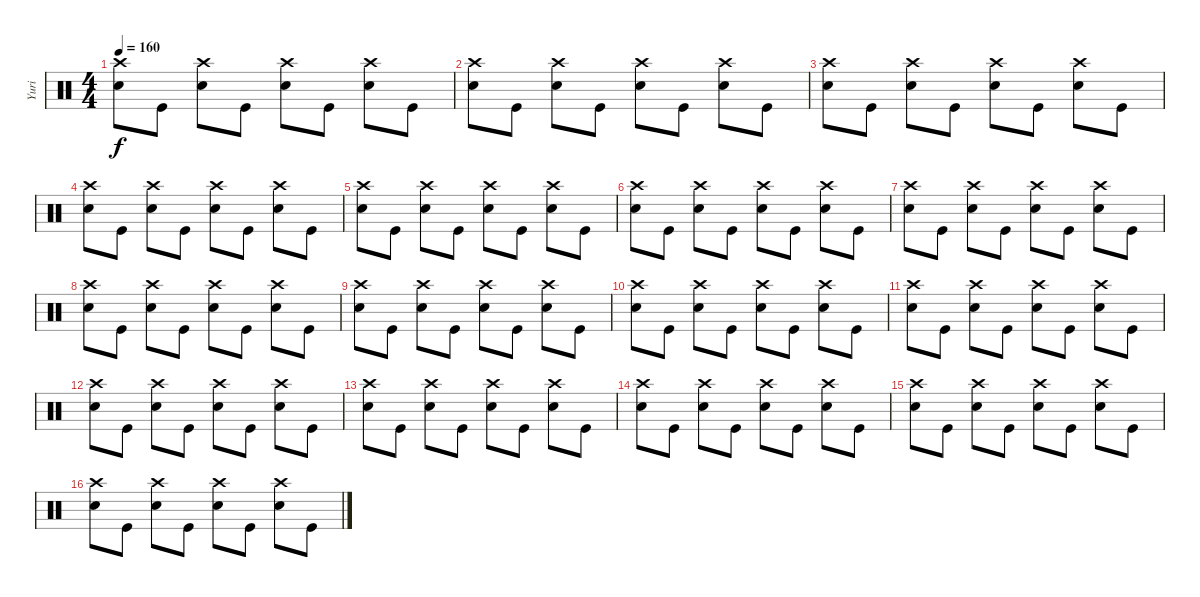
\track ("Yuri" "Yuri") {instrument percussion}
\staff {score}
\articulation defaults
\ts (4 4)
\tempo 160
\clef neutral
\ks c
("Crash high (hit)" "Snare (hit) 2").8{dy f} "Kick (hit)".8 ("Crash high (hit)" "Snare (hit) 2").8 "Kick (hit)".8 ("Crash high (hit)" "Snare (hit) 2").8 "Kick (hit)".8 ("Crash high (hit)" "Snare (hit) 2").8 "Kick (hit)".8 |
("Crash high (hit)" "Snare (hit) 2").8 "Kick (hit)".8 ("Crash high (hit)" "Snare (hit) 2").8 "Kick (hit)".8 ("Crash high (hit)" "Snare (hit) 2").8 "Kick (hit)".8 ("Crash high (hit)" "Snare (hit) 2").8 "Kick (hit)".8 |
("Crash high (hit)" "Snare (hit) 2").8 "Kick (hit)".8 ("Crash high (hit)" "Snare (hit) 2").8 "Kick (hit)".8 ("Crash high (hit)" "Snare (hit) 2").8 "Kick (hit)".8 ("Crash high (hit)" "Snare (hit) 2").8 "Kick (hit)".8 |
("Crash high (hit)" "Snare (hit) 2").8 "Kick (hit)".8 ("Crash high (hit)" "Snare (hit) 2").8 "Kick (hit)".8 ("Crash high (hit)" "Snare (hit) 2").8 "Kick (hit)".8 ("Crash high (hit)" "Snare (hit) 2").8 "Kick (hit)".8 |
("Crash high (hit)" "Snare (hit) 2").8 "Kick (hit)".8 ("Crash high (hit)" "Snare (hit) 2").8 "Kick (hit)".8 ("Crash high (hit)" "Snare (hit) 2").8 "Kick (hit)".8 ("Crash high (hit)" "Snare (hit) 2").8 "Kick (hit)".8 |
("Crash high (hit)" "Snare (hit) 2").8 "Kick (hit)".8 ("Crash high (hit)" "Snare (hit) 2").8 "Kick (hit)".8 ("Crash high (hit)" "Snare (hit) 2").8 "Kick (hit)".8 ("Crash high (hit)" "Snare (hit) 2").8 "Kick (hit)".8 |
("Crash high (hit)" "Snare (hit) 2").8 "Kick (hit)".8 ("Crash high (hit)" "Snare (hit) 2").8 "Kick (hit)".8 ("Crash high (hit)" "Snare (hit) 2").8 "Kick (hit)".8 ("Crash high (hit)" "Snare (hit) 2").8 "Kick (hit)".8 |
("Crash high (hit)" "Snare (hit) 2").8 "Kick (hit)".8 ("Crash high (hit)" "Snare (hit) 2").8 "Kick (hit)".8 ("Crash high (hit)" "Snare (hit) 2").8 "Kick (hit)".8 ("Crash high (hit)" "Snare (hit) 2").8 "Kick (hit)".8 |
("Crash high (hit)" "Snare (hit) 2").8 "Kick (hit)".8 ("Crash high (hit)" "Snare (hit) 2").8 "Kick (hit)".8 ("Crash high (hit)" "Snare (hit) 2").8 "Kick (hit)".8 ("Crash high (hit)" "Snare (hit) 2").8 "Kick (hit)".8 |
("Crash high (hit)" "Snare (hit) 2").8 "Kick (hit)".8 ("Crash high (hit)" "Snare (hit) 2").8 "Kick (hit)".8 ("Crash high (hit)" "Snare (hit) 2").8 "Kick (hit)".8 ("Crash high (hit)" "Snare (hit) 2").8 "Kick (hit)".8 |
("Crash high (hit)" "Snare (hit) 2").8 "Kick (hit)".8 ("Crash high (hit)" "Snare (hit) 2").8 "Kick (hit)".8 ("Crash high (hit)" "Snare (hit) 2").8 "Kick (hit)".8 ("Crash high (hit)" "Snare (hit) 2").8 "Kick (hit)".8 |
("Crash high (hit)" "Snare (hit) 2").8 "Kick (hit)".8 ("Crash high (hit)" "Snare (hit) 2").8 "Kick (hit)".8 ("Crash high (hit)" "Snare (hit) 2").8 "Kick (hit)".8 ("Crash high (hit)" "Snare (hit) 2").8 "Kick (hit)".8 |
("Crash high (hit)" "Snare (hit) 2").8 "Kick (hit)".8 ("Crash high (hit)" "Snare (hit) 2").8 "Kick (hit)".8 ("Crash high (hit)" "Snare (hit) 2").8 "Kick (hit)".8 ("Crash high (hit)" "Snare (hit) 2").8 "Kick (hit)".8 |
("Crash high (hit)" "Snare (hit) 2").8 "Kick (hit)".8 ("Crash high (hit)" "Snare (hit) 2").8 "Kick (hit)".8 ("Crash high (hit)" "Snare (hit) 2").8 "Kick (hit)".8 ("Crash high (hit)" "Snare (hit) 2").8 "Kick (hit)".8 |
("Crash high (hit)" "Snare (hit) 2").8 "Kick (hit)".8 ("Crash high (hit)" "Snare (hit) 2").8 "Kick (hit)".8 ("Crash high (hit)" "Snare (hit) 2").8 "Kick (hit)".8 ("Crash high (hit)" "Snare (hit) 2").8 "Kick (hit)".8 |
("Crash high (hit)" "Snare (hit) 2").8 "Kick (hit)".8 ("Crash high (hit)" "Snare (hit) 2").8 "Kick (hit)".8 ("Crash high (hit)" "Snare (hit) 2").8 "Kick (hit)".8 ("Crash high (hit)" "Snare (hit) 2").8 "Kick (hit)".8
